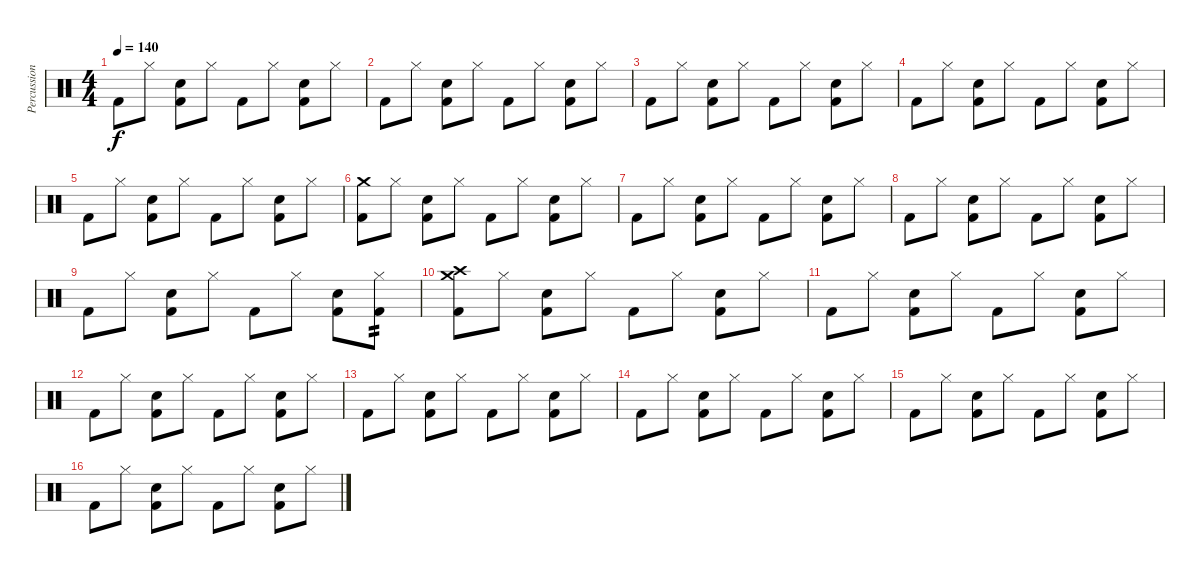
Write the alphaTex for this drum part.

\track ("Percussion" "Percussion") {instrument percussion}
\staff {score}
\articulation defaults
\ts (4 4)
\tempo 140
\clef neutral
\ks c "Kick (hit) 2".8{dy f} "Hi-Hat (closed)".8
("Electric Snare (hit)" "Kick (hit) 2").8 "Hi-Hat (closed)".8 "Kick (hit) 2".8 "Hi-Hat (closed)".8 ("Electric Snare (hit)" "Kick (hit) 2").8 "Hi-Hat (closed)".8 |
"Kick (hit) 2".8 "Hi-Hat (closed)".8 ("Electric Snare (hit)" "Kick (hit) 2").8 "Hi-Hat (closed)".8 "Kick (hit) 2".8 "Hi-Hat (closed)".8 ("Electric Snare (hit)" "Kick (hit) 2").8 "Hi-Hat (closed)".8 |
"Kick (hit) 2".8 "Hi-Hat (closed)".8 ("Electric Snare (hit)" "Kick (hit) 2").8 "Hi-Hat (closed)".8 "Kick (hit) 2".8 "Hi-Hat (closed)".8 ("Electric Snare (hit)" "Kick (hit) 2").8 "Hi-Hat (closed)".8 |
"Kick (hit) 2".8 "Hi-Hat (closed)".8 ("Electric Snare (hit)" "Kick (hit) 2").8 "Hi-Hat (closed)".8 "Kick (hit) 2".8 "Hi-Hat (closed)".8 ("Electric Snare (hit)" "Kick (hit) 2").8 "Hi-Hat (closed)".8 |
"Kick (hit) 2".8 "Hi-Hat (closed)".8 ("Electric Snare (hit)" "Kick (hit) 2").8 "Hi-Hat (closed)".8 "Kick (hit) 2".8 "Hi-Hat (closed)".8 ("Electric Snare (hit)" "Kick (hit) 2").8 "Hi-Hat (closed)".8 |
("Crash medium (hit)" "Kick (hit) 2").8 "Hi-Hat (closed)".8 ("Electric Snare (hit)" "Kick (hit) 2").8 "Hi-Hat (closed)".8 "Kick (hit) 2".8 "Hi-Hat (closed)".8 ("Electric Snare (hit)" "Kick (hit) 2").8 "Hi-Hat (closed)".8 |
"Kick (hit) 2".8 "Hi-Hat (closed)".8 ("Electric Snare (hit)" "Kick (hit) 2").8 "Hi-Hat (closed)".8 "Kick (hit) 2".8 "Hi-Hat (closed)".8 ("Electric Snare (hit)" "Kick (hit) 2").8 "Hi-Hat (closed)".8 |
"Kick (hit) 2".8 "Hi-Hat (closed)".8 ("Electric Snare (hit)" "Kick (hit) 2").8 "Hi-Hat (closed)".8 "Kick (hit) 2".8 "Hi-Hat (closed)".8 ("Electric Snare (hit)" "Kick (hit) 2").8 "Hi-Hat (closed)".8 |
"Kick (hit) 2".8 "Hi-Hat (closed)".8 ("Electric Snare (hit)" "Kick (hit) 2").8 "Hi-Hat (closed)".8 "Kick (hit) 2".8 "Hi-Hat (closed)".8 ("Electric Snare (hit)" "Kick (hit) 2").8 ("Hi-Hat (closed)" "Kick (hit) 2").8{tp 2} |
("Crash medium (hit)" "Crash high (hit)" "Kick (hit) 2").8 "Hi-Hat (closed)".8 ("Electric Snare (hit)" "Kick (hit) 2").8 "Hi-Hat (closed)".8 "Kick (hit) 2".8 "Hi-Hat (closed)".8 ("Electric Snare (hit)" "Kick (hit) 2").8 "Hi-Hat (closed)".8 |
"Kick (hit) 2".8 "Hi-Hat (closed)".8 ("Electric Snare (hit)" "Kick (hit) 2").8 "Hi-Hat (closed)".8 "Kick (hit) 2".8 "Hi-Hat (closed)".8 ("Electric Snare (hit)" "Kick (hit) 2").8 "Hi-Hat (closed)".8 |
"Kick (hit) 2".8 "Hi-Hat (closed)".8 ("Electric Snare (hit)" "Kick (hit) 2").8 "Hi-Hat (closed)".8 "Kick (hit) 2".8 "Hi-Hat (closed)".8 ("Electric Snare (hit)" "Kick (hit) 2").8 "Hi-Hat (closed)".8 |
"Kick (hit) 2".8 "Hi-Hat (closed)".8 ("Electric Snare (hit)" "Kick (hit) 2").8 "Hi-Hat (closed)".8 "Kick (hit) 2".8 "Hi-Hat (closed)".8 ("Electric Snare (hit)" "Kick (hit) 2").8 "Hi-Hat (closed)".8 |
"Kick (hit) 2".8 "Hi-Hat (closed)".8 ("Electric Snare (hit)" "Kick (hit) 2").8 "Hi-Hat (closed)".8 "Kick (hit) 2".8 "Hi-Hat (closed)".8 ("Electric Snare (hit)" "Kick (hit) 2").8 "Hi-Hat (closed)".8 |
"Kick (hit) 2".8 "Hi-Hat (closed)".8 ("Electric Snare (hit)" "Kick (hit) 2").8 "Hi-Hat (closed)".8 "Kick (hit) 2".8 "Hi-Hat (closed)".8 ("Electric Snare (hit)" "Kick (hit) 2").8 "Hi-Hat (closed)".8 |
"Kick (hit) 2".8 "Hi-Hat (closed)".8 ("Electric Snare (hit)" "Kick (hit) 2").8 "Hi-Hat (closed)".8 "Kick (hit) 2".8 "Hi-Hat (closed)".8 ("Electric Snare (hit)" "Kick (hit) 2").8 "Hi-Hat (closed)".8
